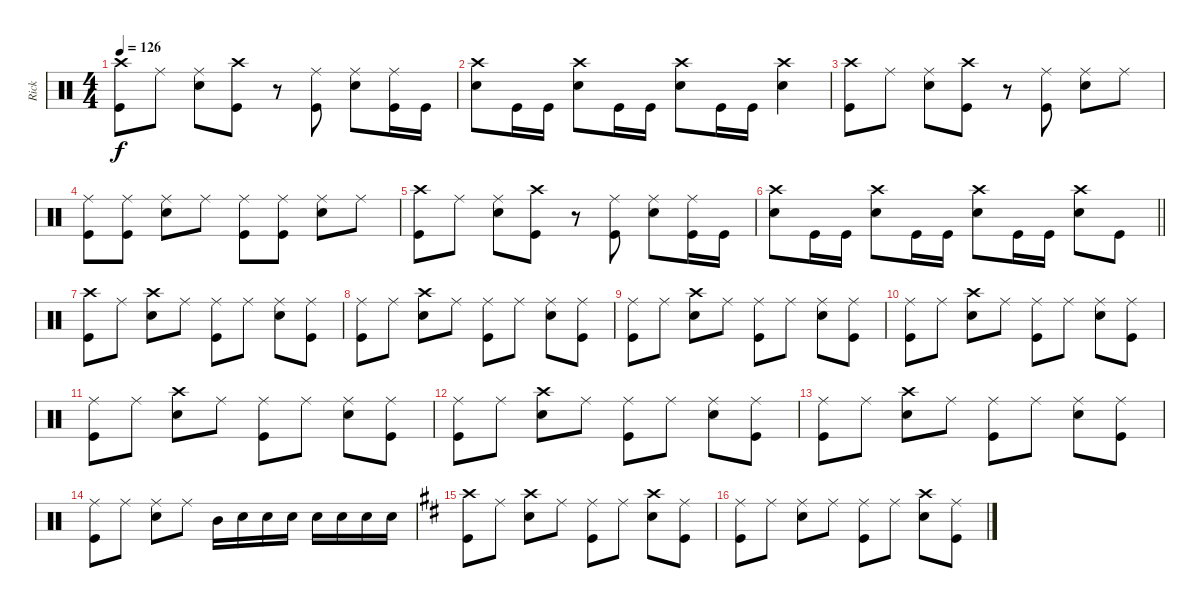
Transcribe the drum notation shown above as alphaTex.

\track ("Rick" "Rick") {instrument percussion}
\staff {score}
\articulation defaults
\ts (4 4)
\tempo 126
\clef neutral
\ks aminor
("Crash high (hit)" "Kick (hit)").8{dy f} "Ride (middle)".8 ("Ride (middle)" "Snare (hit) 2").8 ("Crash high (hit)" "Kick (hit)").8 r.8 ("Ride (middle)" "Kick (hit)").8 ("Ride (middle)" "Snare (hit) 2").8 ("Ride (middle)" "Kick (hit)").16 "Kick (hit)".16 |
("Crash high (hit)" "Snare (hit) 2").8 "Kick (hit)".16 "Kick (hit)".16 ("Crash high (hit)" "Snare (hit) 2").8 "Kick (hit)".16 "Kick (hit)".16 ("Crash high (hit)" "Snare (hit) 2").8 "Kick (hit)".16 "Kick (hit)".16 ("Crash high (hit)" "Snare (hit) 2").4 |
("Crash high (hit)" "Kick (hit)").8 "Ride (middle)".8 ("Ride (middle)" "Snare (hit) 2").8 ("Crash high (hit)" "Kick (hit)").8 r.8 ("Ride (middle)" "Kick (hit)").8 ("Ride (middle)" "Snare (hit) 2").8 "Ride (middle)".8 |
("Ride (middle)" "Kick (hit)").8 ("Ride (middle)" "Kick (hit)").8 ("Ride (middle)" "Snare (hit) 2").8 "Ride (middle)".8 ("Ride (middle)" "Kick (hit)").8 ("Ride (middle)" "Kick (hit)").8 ("Ride (middle)" "Snare (hit) 2").8 "Ride (middle)".8 |
("Crash high (hit)" "Kick (hit)").8 "Ride (middle)".8 ("Ride (middle)" "Snare (hit) 2").8 ("Crash high (hit)" "Kick (hit)").8 r.8 ("Ride (middle)" "Kick (hit)").8 ("Ride (middle)" "Snare (hit) 2").8 ("Ride (middle)" "Kick (hit)").16 "Kick (hit)".16 |
\barLineRight lightlight
("Crash high (hit)" "Snare (hit) 2").8 "Kick (hit)".16 "Kick (hit)".16 ("Crash high (hit)" "Snare (hit) 2").8 "Kick (hit)".16 "Kick (hit)".16 ("Crash high (hit)" "Snare (hit) 2").8 "Kick (hit)".16 "Kick (hit)".16 ("Crash high (hit)" "Snare (hit) 2").8 "Kick (hit)".8 |
("Crash high (hit)" "Kick (hit)").8 "Ride (middle)".8 ("Crash high (hit)" "Snare (hit) 2").8 "Ride (middle)".8 ("Ride (middle)" "Kick (hit)").8 "Ride (middle)".8 ("Ride (middle)" "Snare (hit) 2").8 ("Ride (middle)" "Kick (hit)").8 |
("Ride (middle)" "Kick (hit)").8 "Ride (middle)".8 ("Crash high (hit)" "Snare (hit) 2").8 "Ride (middle)".8 ("Ride (middle)" "Kick (hit)").8 "Ride (middle)".8 ("Ride (middle)" "Snare (hit) 2").8 ("Ride (middle)" "Kick (hit)").8 |
("Ride (middle)" "Kick (hit)").8 "Ride (middle)".8 ("Crash high (hit)" "Snare (hit) 2").8 "Ride (middle)".8 ("Ride (middle)" "Kick (hit)").8 "Ride (middle)".8 ("Ride (middle)" "Snare (hit) 2").8 ("Ride (middle)" "Kick (hit)").8 |
("Ride (middle)" "Kick (hit)").8 "Ride (middle)".8 ("Crash high (hit)" "Snare (hit) 2").8 "Ride (middle)".8 ("Ride (middle)" "Kick (hit)").8 "Ride (middle)".8 ("Ride (middle)" "Snare (hit) 2").8 ("Ride (middle)" "Kick (hit)").8 |
("Ride (middle)" "Kick (hit)").8 "Ride (middle)".8 ("Crash high (hit)" "Snare (hit) 2").8 "Ride (middle)".8 ("Ride (middle)" "Kick (hit)").8 "Ride (middle)".8 ("Ride (middle)" "Snare (hit) 2").8 ("Ride (middle)" "Kick (hit)").8 |
("Ride (middle)" "Kick (hit)").8 "Ride (middle)".8 ("Crash high (hit)" "Snare (hit) 2").8 "Ride (middle)".8 ("Ride (middle)" "Kick (hit)").8 "Ride (middle)".8 ("Ride (middle)" "Snare (hit) 2").8 ("Ride (middle)" "Kick (hit)").8 |
("Ride (middle)" "Kick (hit)").8 "Ride (middle)".8 ("Crash high (hit)" "Snare (hit) 2").8 "Ride (middle)".8 ("Ride (middle)" "Kick (hit)").8 "Ride (middle)".8 ("Ride (middle)" "Snare (hit) 2").8 ("Ride (middle)" "Kick (hit)").8 |
("Ride (middle)" "Kick (hit)").8 "Ride (middle)".8 ("Ride (middle)" "Snare (hit) 2").8 "Ride (middle)".8 "Mid Tom (hit)".16 "Snare (hit) 2".16 "Snare (hit) 2".16 "Snare (hit) 2".16 "Snare (hit) 2".16 "Snare (hit) 2".16 "Snare (hit) 2".16 "Snare (hit) 2".16 |
\ks bminor
("Crash high (hit)" "Kick (hit)").8 "Ride (middle)".8 ("Crash high (hit)" "Snare (hit) 2").8 "Ride (middle)".8 ("Ride (middle)" "Kick (hit)").8 "Ride (middle)".8 ("Crash high (hit)" "Snare (hit) 2").8 ("Ride (middle)" "Kick (hit)").8 |
("Ride (middle)" "Kick (hit)").8 "Ride (middle)".8 ("Ride (middle)" "Snare (hit) 2").8 "Ride (middle)".8 ("Ride (middle)" "Kick (hit)").8 "Ride (middle)".8 ("Crash high (hit)" "Snare (hit) 2").8 ("Ride (middle)" "Kick (hit)").8
